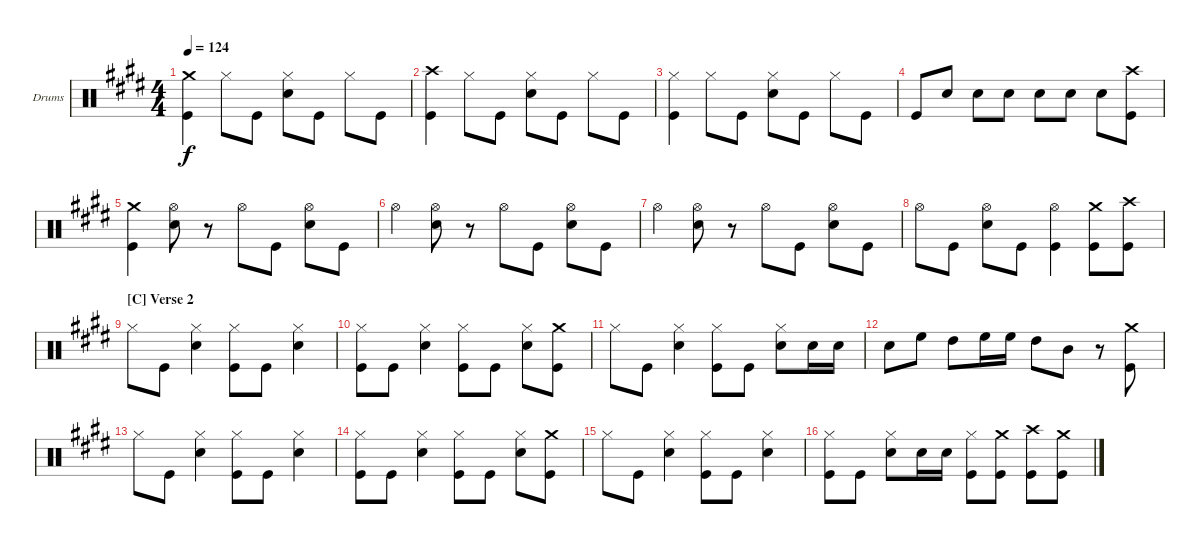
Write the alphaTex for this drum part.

\defaultSystemsLayout 4
\bracketExtendMode groupsimilarinstruments
\firstSystemTrackNameOrientation horizontal
\otherSystemsTrackNameOrientation horizontal
\track ("Drumkit" "Drums") {instrument percussion}
\staff {score}
\articulation defaults
\ts (4 4)
\tempo 124
\clef neutral
\ks e
("Crash medium (hit)" "Kick (hit)").4{dy f} "Hi-Hat (closed)".8 "Kick (hit)".8 ("Hi-Hat (closed)" "Snare (hit) 2").8 "Kick (hit)".8 "Hi-Hat (closed)".8 "Kick (hit)".8 |
("Crash high (hit)" "Kick (hit)").4 "Hi-Hat (closed)".8 "Kick (hit)".8 ("Hi-Hat (closed)" "Snare (hit) 2").8 "Kick (hit)".8 "Hi-Hat (closed)".8 "Kick (hit)".8 |
("Hi-Hat (closed)" "Kick (hit)").4 "Hi-Hat (closed)".8 "Kick (hit)".8 ("Hi-Hat (closed)" "Snare (hit) 2").8 "Kick (hit)".8 "Hi-Hat (closed)".8 "Kick (hit)".8 |
"Kick (hit)".8 "Snare (hit) 2".8 "Snare (hit) 2".8 "Snare (hit) 2".8 "Snare (hit) 2".8 "Snare (hit) 2".8 "Snare (hit) 2".8 ("Crash high (hit)" "Kick (hit)").8 |
("Crash medium (hit)" "Kick (hit)").4 ("Hi-Hat (open)" "Snare (hit) 2").8 r.8 "Hi-Hat (open)".8 "Kick (hit)".8 ("Hi-Hat (open)" "Snare (hit) 2").8 "Kick (hit)".8 |
"Hi-Hat (open)".4 ("Hi-Hat (open)" "Snare (hit) 2").8 r.8 "Hi-Hat (open)".8 "Kick (hit)".8 ("Hi-Hat (open)" "Snare (hit) 2").8 "Kick (hit)".8 |
"Hi-Hat (open)".4 ("Hi-Hat (open)" "Snare (hit) 2").8 r.8 "Hi-Hat (open)".8 "Kick (hit)".8 ("Hi-Hat (open)" "Snare (hit) 2").8 "Kick (hit)".8 |
"Hi-Hat (open)".8 "Kick (hit)".8 ("Hi-Hat (open)" "Snare (hit) 2").8 "Kick (hit)".8 ("Hi-Hat (open)" "Kick (hit)").4 ("Crash medium (hit)" "Kick (hit)").8 ("Crash high (hit)" "Kick (hit)").8 |
\section ("C" "Verse 2")
"Hi-Hat (closed)".8 "Kick (hit)".8 ("Hi-Hat (closed)" "Snare (hit) 2").4 ("Hi-Hat (closed)" "Kick (hit)").8 "Kick (hit)".8 ("Hi-Hat (closed)" "Snare (hit) 2").4 |
("Hi-Hat (closed)" "Kick (hit)").8 "Kick (hit)".8 ("Hi-Hat (closed)" "Snare (hit) 2").4 ("Hi-Hat (closed)" "Kick (hit)").8 "Kick (hit)".8 ("Hi-Hat (closed)" "Snare (hit) 2").8 ("Crash medium (hit)" "Kick (hit)").8 |
"Hi-Hat (closed)".8 "Kick (hit)".8 ("Hi-Hat (closed)" "Snare (hit) 2").4 ("Hi-Hat (closed)" "Kick (hit)").8 "Kick (hit)".8 ("Hi-Hat (closed)" "Snare (hit) 2").8 "Snare (hit) 2".16 "Snare (hit) 2".16 |
"Snare (hit) 2".8 "High Floor Tom (hit)".8 "High Tom (hit)".8 "High Floor Tom (hit)".16 "High Floor Tom (hit)".16 "High Tom (hit)".8 "Mid Tom (hit)".8 r.8 ("Crash medium (hit)" "Kick (hit)").8 |
"Hi-Hat (closed)".8 "Kick (hit)".8 ("Hi-Hat (closed)" "Snare (hit) 2").4 ("Hi-Hat (closed)" "Kick (hit)").8 "Kick (hit)".8 ("Hi-Hat (closed)" "Snare (hit) 2").4 |
("Hi-Hat (closed)" "Kick (hit)").8 "Kick (hit)".8 ("Hi-Hat (closed)" "Snare (hit) 2").4 ("Hi-Hat (closed)" "Kick (hit)").8 "Kick (hit)".8 ("Hi-Hat (closed)" "Snare (hit) 2").8 ("Crash medium (hit)" "Kick (hit)").8 |
"Hi-Hat (closed)".8 "Kick (hit)".8 ("Hi-Hat (closed)" "Snare (hit) 2").4 ("Hi-Hat (closed)" "Kick (hit)").8 "Kick (hit)".8 ("Hi-Hat (closed)" "Snare (hit) 2").4 |
("Hi-Hat (closed)" "Kick (hit)").8 "Kick (hit)".8 ("Hi-Hat (closed)" "Snare (hit) 2").8 "Snare (hit) 2".16 "Snare (hit) 2".16 ("Hi-Hat (closed)" "Kick (hit)").8 ("Crash medium (hit)" "Kick (hit)").8 ("Crash high (hit)" "Kick (hit)").8 ("Crash medium (hit)" "Kick (hit)").8
